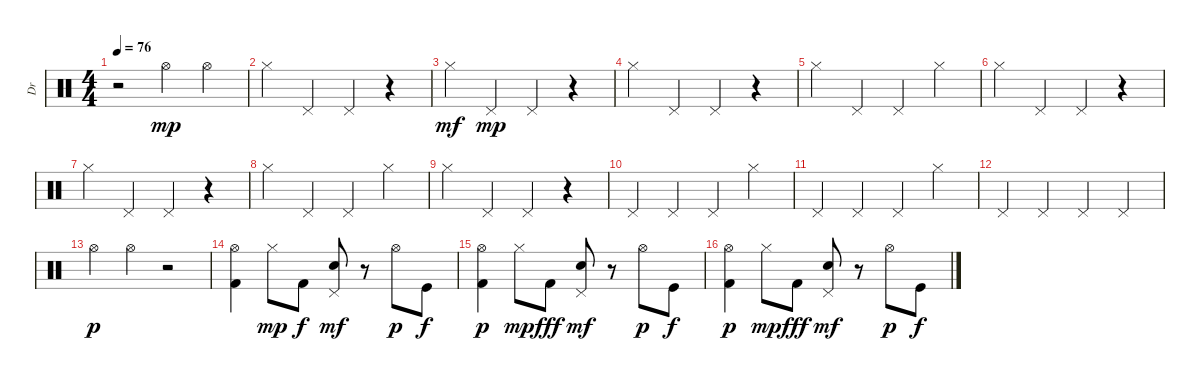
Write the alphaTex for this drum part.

\track ("Dr" "Dr") {instrument percussion}
\staff {score}
\articulation defaults
\ts (4 4)
\tempo 76
\clef neutral
\ks c
r.2{dy mp} "Hi-Hat (open)".4 "Hi-Hat (open)".4 |
"Hi-Hat (closed)".4 "Pedal Hi-Hat (hit)".4 "Pedal Hi-Hat (hit)".4 r.4 |
"Hi-Hat (closed)".4{dy mf} "Pedal Hi-Hat (hit)".4{dy mp} "Pedal Hi-Hat (hit)".4 r.4 |
"Hi-Hat (closed)".4 "Pedal Hi-Hat (hit)".4 "Pedal Hi-Hat (hit)".4 r.4 |
"Hi-Hat (closed)".4 "Pedal Hi-Hat (hit)".4 "Pedal Hi-Hat (hit)".4 "Hi-Hat (closed)".4 |
"Hi-Hat (closed)".4 "Pedal Hi-Hat (hit)".4 "Pedal Hi-Hat (hit)".4 r.4 |
"Hi-Hat (closed)".4 "Pedal Hi-Hat (hit)".4 "Pedal Hi-Hat (hit)".4 r.4 |
"Hi-Hat (closed)".4 "Pedal Hi-Hat (hit)".4 "Pedal Hi-Hat (hit)".4 "Hi-Hat (closed)".4 |
"Hi-Hat (closed)".4 "Pedal Hi-Hat (hit)".4 "Pedal Hi-Hat (hit)".4 r.4 |
"Pedal Hi-Hat (hit)".4 "Pedal Hi-Hat (hit)".4 "Pedal Hi-Hat (hit)".4 "Hi-Hat (closed)".4 |
"Pedal Hi-Hat (hit)".4 "Pedal Hi-Hat (hit)".4 "Pedal Hi-Hat (hit)".4 "Hi-Hat (closed)".4 |
"Pedal Hi-Hat (hit)".4 "Pedal Hi-Hat (hit)".4 "Pedal Hi-Hat (hit)".4 "Pedal Hi-Hat (hit)".4 |
"Hi-Hat (open)".4{dy p} "Hi-Hat (open)".4 r.2 |
("Kick (hit) 2" "Hi-Hat (open)").4 "Hi-Hat (closed)".8{dy mp} "Kick (hit) 2".8{dy f} ("Snare (hit) 2" "Pedal Hi-Hat (hit)").8{dy mf} r.8 "Hi-Hat (open)".8{dy p} "Kick (hit)".8{dy f} |
("Kick (hit) 2" "Hi-Hat (open)").4{dy p} "Hi-Hat (closed)".8{dy mp} "Kick (hit) 2".8{dy fff} ("Snare (hit) 2" "Pedal Hi-Hat (hit)").8{dy mf} r.8 "Hi-Hat (open)".8{dy p} "Kick (hit)".8{dy f} |
("Kick (hit) 2" "Hi-Hat (open)").4{dy p} "Hi-Hat (closed)".8{dy mp} "Kick (hit) 2".8{dy fff} ("Snare (hit) 2" "Pedal Hi-Hat (hit)").8{dy mf} r.8 "Hi-Hat (open)".8{dy p} "Kick (hit)".8{dy f}
